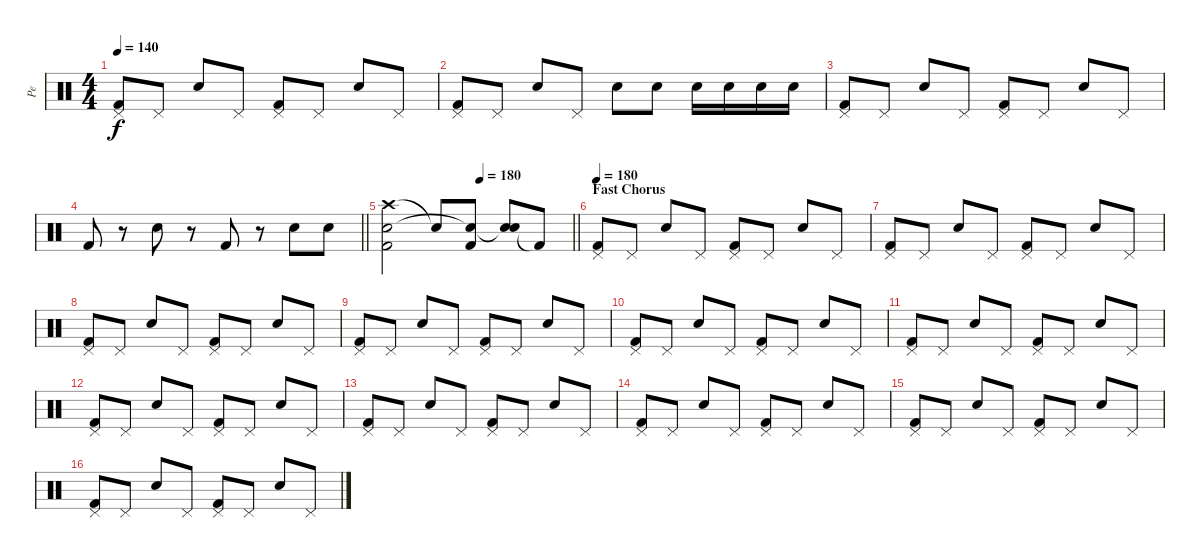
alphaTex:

\track ("Pe" "Pe") {instrument percussion}
\staff {score}
\articulation defaults
\ts (4 4)
\tempo 140
\clef neutral
\ks c
("Kick (hit) 2" "Pedal Hi-Hat (hit)").8{dy f} "Pedal Hi-Hat (hit)".8 "Snare (hit) 2".8 "Pedal Hi-Hat (hit)".8 ("Kick (hit) 2" "Pedal Hi-Hat (hit)").8 "Pedal Hi-Hat (hit)".8 "Snare (hit) 2".8 "Pedal Hi-Hat (hit)".8 |
("Kick (hit) 2" "Pedal Hi-Hat (hit)").8 "Pedal Hi-Hat (hit)".8 "Snare (hit) 2".8 "Pedal Hi-Hat (hit)".8 "Snare (hit) 2".8 "Snare (hit) 2".8 "Snare (hit) 2".16 "Snare (hit) 2".16 "Snare (hit) 2".16 "Snare (hit) 2".16 |
("Kick (hit) 2" "Pedal Hi-Hat (hit)").8 "Pedal Hi-Hat (hit)".8 "Snare (hit) 2".8 "Pedal Hi-Hat (hit)".8 ("Kick (hit) 2" "Pedal Hi-Hat (hit)").8 "Pedal Hi-Hat (hit)".8 "Snare (hit) 2".8 "Pedal Hi-Hat (hit)".8 |
\barLineRight lightlight "Kick (hit) 2".8
r.8 "Snare (hit) 2".8 r.8 "Kick (hit) 2".8 r.8 "Snare (hit) 2".8 "Snare (hit) 2".8 |
\tempo (180 0.5)
\barLineRight lightlight
("Crash high (hit)" "Snare (hit) 2" "Kick (hit) 2").2 "Snare (hit)"{t}.8 ("Kick (hit) 2" "Snare (hit) 2"{t}).8 ("Snare (hit) 2" "Snare (hit) 2"{t}).8 "Kick (hit) 2"{t}.8 |
\section ("" "Fast Chorus")
\tempo 180
("Kick (hit) 2" "Pedal Hi-Hat (hit)").8 "Pedal Hi-Hat (hit)".8 "Snare (hit) 2".8 "Pedal Hi-Hat (hit)".8 ("Kick (hit) 2" "Pedal Hi-Hat (hit)").8 "Pedal Hi-Hat (hit)".8 "Snare (hit) 2".8 "Pedal Hi-Hat (hit)".8 |
("Kick (hit) 2" "Pedal Hi-Hat (hit)").8 "Pedal Hi-Hat (hit)".8 "Snare (hit) 2".8 "Pedal Hi-Hat (hit)".8 ("Kick (hit) 2" "Pedal Hi-Hat (hit)").8 "Pedal Hi-Hat (hit)".8 "Snare (hit) 2".8 "Pedal Hi-Hat (hit)".8 |
("Kick (hit) 2" "Pedal Hi-Hat (hit)").8 "Pedal Hi-Hat (hit)".8 "Snare (hit) 2".8 "Pedal Hi-Hat (hit)".8 ("Kick (hit) 2" "Pedal Hi-Hat (hit)").8 "Pedal Hi-Hat (hit)".8 "Snare (hit) 2".8 "Pedal Hi-Hat (hit)".8 |
("Kick (hit) 2" "Pedal Hi-Hat (hit)").8 "Pedal Hi-Hat (hit)".8 "Snare (hit) 2".8 "Pedal Hi-Hat (hit)".8 ("Kick (hit) 2" "Pedal Hi-Hat (hit)").8 "Pedal Hi-Hat (hit)".8 "Snare (hit) 2".8 "Pedal Hi-Hat (hit)".8 |
("Kick (hit) 2" "Pedal Hi-Hat (hit)").8 "Pedal Hi-Hat (hit)".8 "Snare (hit) 2".8 "Pedal Hi-Hat (hit)".8 ("Kick (hit) 2" "Pedal Hi-Hat (hit)").8 "Pedal Hi-Hat (hit)".8 "Snare (hit) 2".8 "Pedal Hi-Hat (hit)".8 |
("Kick (hit) 2" "Pedal Hi-Hat (hit)").8 "Pedal Hi-Hat (hit)".8 "Snare (hit) 2".8 "Pedal Hi-Hat (hit)".8 ("Kick (hit) 2" "Pedal Hi-Hat (hit)").8 "Pedal Hi-Hat (hit)".8 "Snare (hit) 2".8 "Pedal Hi-Hat (hit)".8 |
("Kick (hit) 2" "Pedal Hi-Hat (hit)").8 "Pedal Hi-Hat (hit)".8 "Snare (hit) 2".8 "Pedal Hi-Hat (hit)".8 ("Kick (hit) 2" "Pedal Hi-Hat (hit)").8 "Pedal Hi-Hat (hit)".8 "Snare (hit) 2".8 "Pedal Hi-Hat (hit)".8 |
("Kick (hit) 2" "Pedal Hi-Hat (hit)").8 "Pedal Hi-Hat (hit)".8 "Snare (hit) 2".8 "Pedal Hi-Hat (hit)".8 ("Kick (hit) 2" "Pedal Hi-Hat (hit)").8 "Pedal Hi-Hat (hit)".8 "Snare (hit) 2".8 "Pedal Hi-Hat (hit)".8 |
("Kick (hit) 2" "Pedal Hi-Hat (hit)").8 "Pedal Hi-Hat (hit)".8 "Snare (hit) 2".8 "Pedal Hi-Hat (hit)".8 ("Kick (hit) 2" "Pedal Hi-Hat (hit)").8 "Pedal Hi-Hat (hit)".8 "Snare (hit) 2".8 "Pedal Hi-Hat (hit)".8 |
("Kick (hit) 2" "Pedal Hi-Hat (hit)").8 "Pedal Hi-Hat (hit)".8 "Snare (hit) 2".8 "Pedal Hi-Hat (hit)".8 ("Kick (hit) 2" "Pedal Hi-Hat (hit)").8 "Pedal Hi-Hat (hit)".8 "Snare (hit) 2".8 "Pedal Hi-Hat (hit)".8 |
("Kick (hit) 2" "Pedal Hi-Hat (hit)").8 "Pedal Hi-Hat (hit)".8 "Snare (hit) 2".8 "Pedal Hi-Hat (hit)".8 ("Kick (hit) 2" "Pedal Hi-Hat (hit)").8 "Pedal Hi-Hat (hit)".8 "Snare (hit) 2".8 "Pedal Hi-Hat (hit)".8
